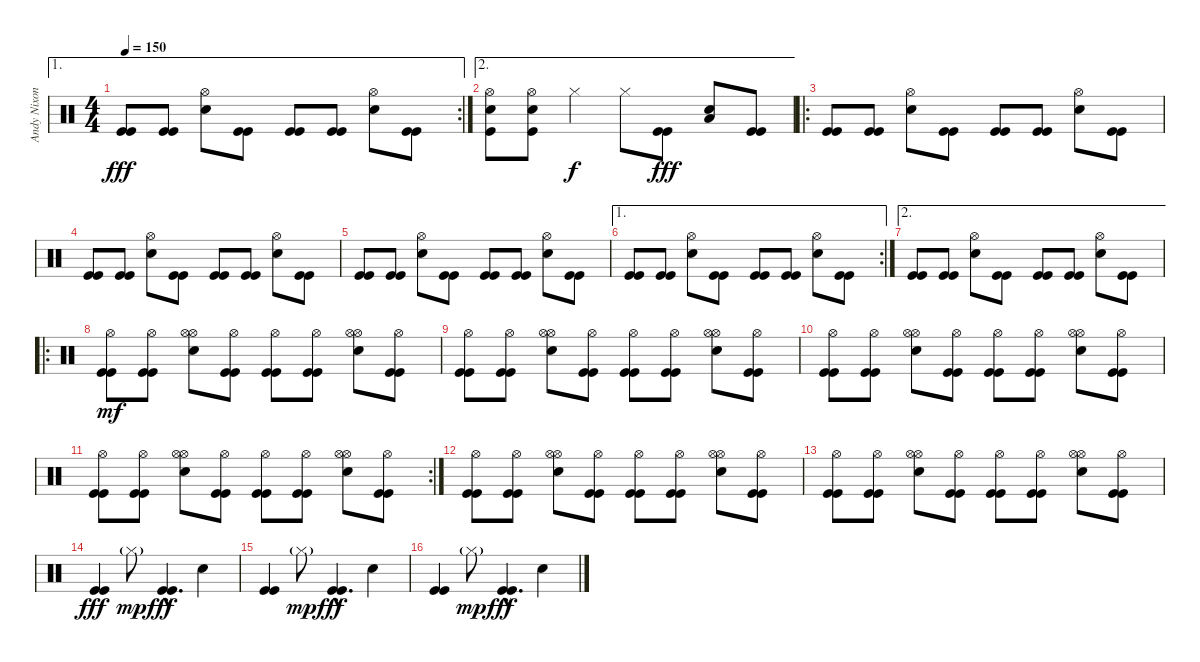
\track ("Andy Nixon (drums)" "Andy Nixon") {instrument percussion}
\staff {score}
\articulation defaults
\ae 1
\rc 2
\ts (4 4)
\tempo 150
\clef neutral
\ks c
("Kick (hit)" "Kick (hit)").8{dy fff} ("Kick (hit)" "Kick (hit)").8 ("Snare (hit) 2" "Hi-Hat (open)").8 ("Kick (hit)" "Kick (hit)").8 ("Kick (hit)" "Kick (hit)").8 ("Kick (hit)" "Kick (hit)").8 ("Snare (hit) 2" "Hi-Hat (open)").8 ("Kick (hit)" "Kick (hit)").8 |
\ae 2
("Snare (hit) 2" "Hi-Hat (open)" "Kick (hit)").8 ("Snare (hit) 2" "Hi-Hat (open)" "Kick (hit)").8 "Hi-Hat (closed)".4{dy f} "Hi-Hat (closed)".8 ("Kick (hit)" "Kick (hit)").8{dy fff} ("Snare (hit) 2" "Low Floor Tom (hit)").8 ("Kick (hit)" "Kick (hit)").8 |
\ro
("Kick (hit)" "Kick (hit)").8 ("Kick (hit)" "Kick (hit)").8 ("Snare (hit) 2" "Hi-Hat (open)").8 ("Kick (hit)" "Kick (hit)").8 ("Kick (hit)" "Kick (hit)").8 ("Kick (hit)" "Kick (hit)").8 ("Snare (hit) 2" "Hi-Hat (open)").8 ("Kick (hit)" "Kick (hit)").8 |
("Kick (hit)" "Kick (hit)").8 ("Kick (hit)" "Kick (hit)").8 ("Snare (hit) 2" "Hi-Hat (open)").8 ("Kick (hit)" "Kick (hit)").8 ("Kick (hit)" "Kick (hit)").8 ("Kick (hit)" "Kick (hit)").8 ("Snare (hit) 2" "Hi-Hat (open)").8 ("Kick (hit)" "Kick (hit)").8 |
("Kick (hit)" "Kick (hit)").8 ("Kick (hit)" "Kick (hit)").8 ("Snare (hit) 2" "Hi-Hat (open)").8 ("Kick (hit)" "Kick (hit)").8 ("Kick (hit)" "Kick (hit)").8 ("Kick (hit)" "Kick (hit)").8 ("Snare (hit) 2" "Hi-Hat (open)").8 ("Kick (hit)" "Kick (hit)").8 |
\ae 1
\rc 2
("Kick (hit)" "Kick (hit)").8 ("Kick (hit)" "Kick (hit)").8 ("Snare (hit) 2" "Hi-Hat (open)").8 ("Kick (hit)" "Kick (hit)").8 ("Kick (hit)" "Kick (hit)").8 ("Kick (hit)" "Kick (hit)").8 ("Snare (hit) 2" "Hi-Hat (open)").8 ("Kick (hit)" "Kick (hit)").8 |
\ae 2
("Kick (hit)" "Kick (hit)").8 ("Kick (hit)" "Kick (hit)").8 ("Snare (hit) 2" "Hi-Hat (open)").8 ("Kick (hit)" "Kick (hit)").8 ("Kick (hit)" "Kick (hit)").8 ("Kick (hit)" "Kick (hit)").8 ("Snare (hit) 2" "Hi-Hat (open)").8 ("Kick (hit)" "Kick (hit)").8 |
\ro
("Kick (hit)" "Kick (hit)" "Hi-Hat (open)").8{dy mf} ("Kick (hit)" "Kick (hit)" "Hi-Hat (open)").8 ("Snare (hit) 2" "Hi-Hat (open)" "Hi-Hat (open)").8 ("Kick (hit)" "Kick (hit)" "Hi-Hat (open)").8 ("Kick (hit)" "Kick (hit)" "Hi-Hat (open)").8 ("Kick (hit)" "Kick (hit)" "Hi-Hat (open)").8 ("Snare (hit) 2" "Hi-Hat (open)" "Hi-Hat (open)").8 ("Kick (hit)" "Kick (hit)" "Hi-Hat (open)").8 |
("Kick (hit)" "Kick (hit)" "Hi-Hat (open)").8 ("Kick (hit)" "Kick (hit)" "Hi-Hat (open)").8 ("Snare (hit) 2" "Hi-Hat (open)" "Hi-Hat (open)").8 ("Kick (hit)" "Kick (hit)" "Hi-Hat (open)").8 ("Kick (hit)" "Kick (hit)" "Hi-Hat (open)").8 ("Kick (hit)" "Kick (hit)" "Hi-Hat (open)").8 ("Snare (hit) 2" "Hi-Hat (open)" "Hi-Hat (open)").8 ("Kick (hit)" "Kick (hit)" "Hi-Hat (open)").8 |
("Kick (hit)" "Kick (hit)" "Hi-Hat (open)").8 ("Kick (hit)" "Kick (hit)" "Hi-Hat (open)").8 ("Snare (hit) 2" "Hi-Hat (open)" "Hi-Hat (open)").8 ("Kick (hit)" "Kick (hit)" "Hi-Hat (open)").8 ("Kick (hit)" "Kick (hit)" "Hi-Hat (open)").8 ("Kick (hit)" "Kick (hit)" "Hi-Hat (open)").8 ("Snare (hit) 2" "Hi-Hat (open)" "Hi-Hat (open)").8 ("Kick (hit)" "Kick (hit)" "Hi-Hat (open)").8 |
\rc 2
("Kick (hit)" "Kick (hit)" "Hi-Hat (open)").8 ("Kick (hit)" "Kick (hit)" "Hi-Hat (open)").8 ("Snare (hit) 2" "Hi-Hat (open)" "Hi-Hat (open)").8 ("Kick (hit)" "Kick (hit)" "Hi-Hat (open)").8 ("Kick (hit)" "Kick (hit)" "Hi-Hat (open)").8 ("Kick (hit)" "Kick (hit)" "Hi-Hat (open)").8 ("Snare (hit) 2" "Hi-Hat (open)" "Hi-Hat (open)").8 ("Kick (hit)" "Kick (hit)" "Hi-Hat (open)").8 |
("Kick (hit)" "Kick (hit)" "Hi-Hat (open)").8 ("Kick (hit)" "Kick (hit)" "Hi-Hat (open)").8 ("Snare (hit) 2" "Hi-Hat (open)" "Hi-Hat (open)").8 ("Kick (hit)" "Kick (hit)" "Hi-Hat (open)").8 ("Kick (hit)" "Kick (hit)" "Hi-Hat (open)").8 ("Kick (hit)" "Kick (hit)" "Hi-Hat (open)").8 ("Snare (hit) 2" "Hi-Hat (open)" "Hi-Hat (open)").8 ("Kick (hit)" "Kick (hit)" "Hi-Hat (open)").8 |
("Kick (hit)" "Kick (hit)" "Hi-Hat (open)").8 ("Kick (hit)" "Kick (hit)" "Hi-Hat (open)").8 ("Snare (hit) 2" "Hi-Hat (open)" "Hi-Hat (open)").8 ("Kick (hit)" "Kick (hit)" "Hi-Hat (open)").8 ("Kick (hit)" "Kick (hit)" "Hi-Hat (open)").8 ("Kick (hit)" "Kick (hit)" "Hi-Hat (open)").8 ("Snare (hit) 2" "Hi-Hat (open)" "Hi-Hat (open)").8 ("Kick (hit)" "Kick (hit)" "Hi-Hat (open)").8 |
("Kick (hit)" "Kick (hit)").4{dy fff} "Hi-Hat (closed)"{g}.8{dy mp} ("Kick (hit)"{hac} "Kick (hit)"{hac}).4{d dy fff} "Snare (hit) 2".4 |
("Kick (hit)" "Kick (hit)").4 "Hi-Hat (closed)"{g}.8{dy mp} ("Kick (hit)"{hac} "Kick (hit)"{hac}).4{d dy fff} "Snare (hit) 2".4 |
("Kick (hit)" "Kick (hit)").4 "Hi-Hat (closed)"{g}.8{dy mp} ("Kick (hit)"{hac} "Kick (hit)"{hac}).4{d dy fff} "Snare (hit) 2".4
